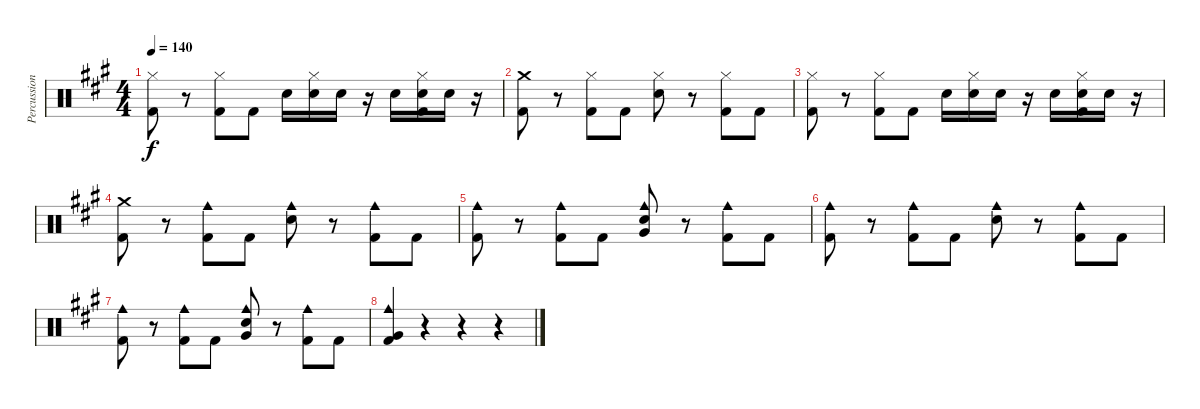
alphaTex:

\track ("Percussion" "Percussion") {instrument percussion}
\staff {score}
\articulation defaults
\ts (4 4)
\tempo 140
\clef neutral
\ks a
("Hi-Hat (closed)" "Kick (hit) 2").8{dy f} r.8 ("Hi-Hat (closed)" "Kick (hit) 2").8 "Kick (hit) 2".8 "Snare (hit) 2".16 ("Hi-Hat (closed)" "Snare (hit) 2").16 "Snare (hit) 2".16 r.16 "Snare (hit) 2".16 ("Hi-Hat (closed)" "Snare (hit) 2" "Kick (hit) 2").16 "Snare (hit) 2".16 r.16 |
("Crash medium (hit)" "Kick (hit) 2").8 r.8 ("Hi-Hat (closed)" "Kick (hit) 2").8 "Kick (hit) 2".8 ("Hi-Hat (closed)" "Snare (hit) 2").8 r.8 ("Hi-Hat (closed)" "Kick (hit) 2").8 "Kick (hit) 2".8 |
("Hi-Hat (closed)" "Kick (hit) 2").8 r.8 ("Hi-Hat (closed)" "Kick (hit) 2").8 "Kick (hit) 2".8 "Snare (hit) 2".16 ("Hi-Hat (closed)" "Snare (hit) 2").16 "Snare (hit) 2".16 r.16 "Snare (hit) 2".16 ("Hi-Hat (closed)" "Snare (hit) 2" "Kick (hit) 2").16 "Snare (hit) 2".16 r.16 |
("Crash medium (hit)" "Kick (hit) 2").8 r.8 ("Cowbell medium (hit)" "Kick (hit) 2").8 "Kick (hit) 2".8 ("Cowbell medium (hit)" "Snare (hit) 2").8 r.8 ("Cowbell medium (hit)" "Kick (hit) 2").8 "Kick (hit) 2".8 |
("Cowbell medium (hit)" "Kick (hit) 2").8 r.8 ("Cowbell medium (hit)" "Kick (hit) 2").8 "Kick (hit) 2".8 ("Cowbell medium (hit)" "Very Low Tom (hit)" "Snare (hit) 2").8 r.8 ("Cowbell medium (hit)" "Kick (hit) 2").8 "Kick (hit) 2".8 |
("Cowbell medium (hit)" "Kick (hit) 2").8 r.8 ("Cowbell medium (hit)" "Kick (hit) 2").8 "Kick (hit) 2".8 ("Cowbell medium (hit)" "Snare (hit) 2").8 r.8 ("Cowbell medium (hit)" "Kick (hit) 2").8 "Kick (hit) 2".8 |
("Cowbell medium (hit)" "Kick (hit) 2").8 r.8 ("Cowbell medium (hit)" "Kick (hit) 2").8 "Kick (hit) 2".8 ("Cowbell medium (hit)" "Very Low Tom (hit)" "Snare (hit) 2").8 r.8 ("Cowbell medium (hit)" "Kick (hit) 2").8 "Kick (hit) 2".8 |
("Cowbell medium (hit)" "Very Low Tom (hit)" "Kick (hit) 2").4 r.4 r.4 r.4
